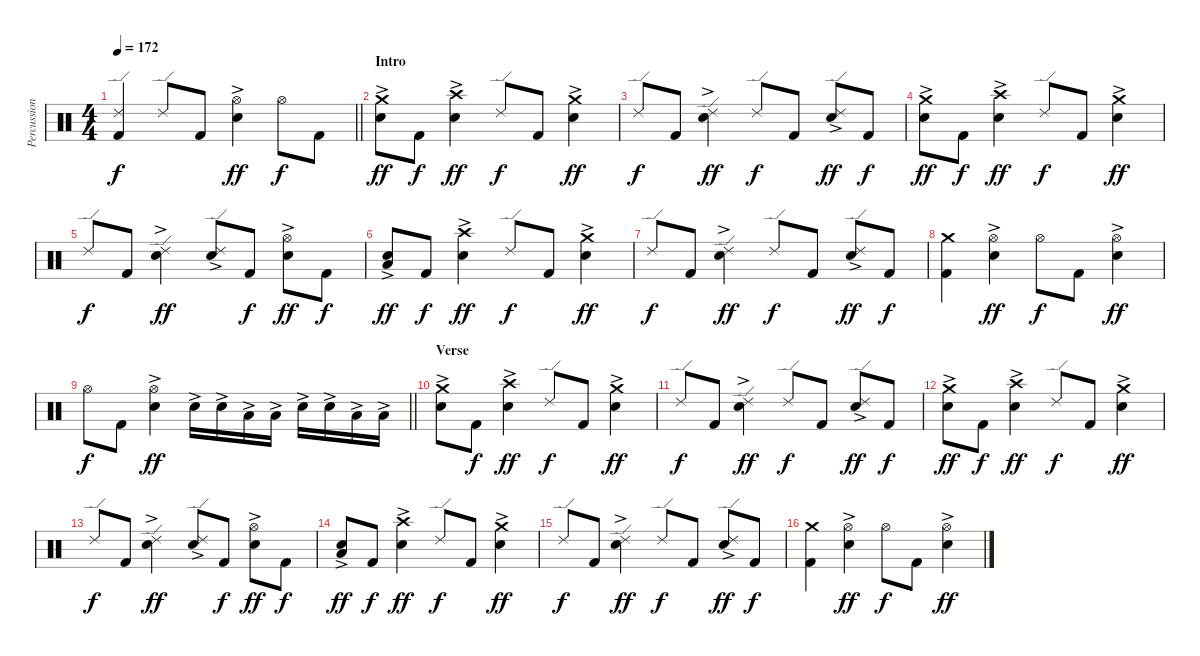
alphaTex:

\track ("Percussion" "Percussion") {instrument percussion}
\staff {score}
\articulation defaults
\ts (4 4)
\tempo 172
\clef neutral
\barLineRight lightlight
\ks c
("Ride (edge) 2" "Kick (hit) 2").4{dy f} "Ride (edge) 2".8 "Kick (hit) 2".8 ("Hi-Hat (open)" "Electric Snare (hit)"{ac}).4{dy ff} "Hi-Hat (open)".8{dy f} "Kick (hit) 2".8 |
\section ("" "Intro")
("Crash medium (hit)" "Electric Snare (hit)"{ac}).8{dy ff} "Kick (hit) 2".8{dy f} ("Crash high (hit)" "Electric Snare (hit)"{ac}).4{dy ff} "Ride (edge) 2".8{dy f} "Kick (hit) 2".8 ("Crash medium (hit)" "Electric Snare (hit)"{ac}).4{dy ff} |
"Ride (edge) 2".8{dy f} "Kick (hit) 2".8 ("Ride (edge) 2" "Electric Snare (hit)"{ac}).4{dy ff} "Ride (edge) 2".8{dy f} "Kick (hit) 2".8 ("Ride (edge) 2" "Electric Snare (hit)"{ac}).8{dy ff} "Kick (hit) 2".8{dy f} |
("Crash medium (hit)" "Electric Snare (hit)"{ac}).8{dy ff} "Kick (hit) 2".8{dy f} ("Crash high (hit)" "Electric Snare (hit)"{ac}).4{dy ff} "Ride (edge) 2".8{dy f} "Kick (hit) 2".8 ("Crash medium (hit)" "Electric Snare (hit)"{ac}).4{dy ff} |
"Ride (edge) 2".8{dy f} "Kick (hit) 2".8 ("Ride (edge) 2" "Electric Snare (hit)"{ac}).4{dy ff} ("Ride (edge) 2" "Electric Snare (hit)"{ac}).8 "Kick (hit) 2".8{dy f} ("Hi-Hat (open)" "Electric Snare (hit)"{ac}).8{dy ff} "Kick (hit) 2".8{dy f} |
("Low Tom (hit)"{ac} "Electric Snare (hit)"{ac}).8{bu 120 dy ff} "Kick (hit) 2".8{dy f} ("Crash high (hit)" "Electric Snare (hit)"{ac}).4{dy ff} "Ride (edge) 2".8{dy f} "Kick (hit) 2".8 ("Crash medium (hit)" "Electric Snare (hit)"{ac}).4{dy ff} |
"Ride (edge) 2".8{dy f} "Kick (hit) 2".8 ("Ride (edge) 2" "Electric Snare (hit)"{ac}).4{dy ff} "Ride (edge) 2".8{dy f} "Kick (hit) 2".8 ("Ride (edge) 2" "Electric Snare (hit)"{ac}).8{dy ff} "Kick (hit) 2".8{dy f} |
("Crash medium (hit)" "Kick (hit) 2").4 ("Hi-Hat (open)" "Electric Snare (hit)"{ac}).4{dy ff} "Hi-Hat (open)".8{dy f} "Kick (hit) 2".8 ("Hi-Hat (open)" "Electric Snare (hit)"{ac}).4{dy ff} |
\barLineRight lightlight "Hi-Hat (open)".8{dy f} "Kick (hit) 2".8
("Hi-Hat (open)" "Electric Snare (hit)"{ac}).4{dy ff} "Electric Snare (hit)"{ac}.16 "Electric Snare (hit)"{ac}.16 "Low Tom (hit)"{ac}.16 "Low Tom (hit)"{ac}.16 "Electric Snare (hit)"{ac}.16 "Electric Snare (hit)"{ac}.16 "Low Tom (hit)"{ac}.16 "Low Tom (hit)"{ac}.16 |
\section ("" "Verse")
("Crash medium (hit)" "Electric Snare (hit)"{ac}).8 "Kick (hit) 2".8{dy f} ("Crash high (hit)" "Electric Snare (hit)"{ac}).4{dy ff} "Ride (edge) 2".8{dy f} "Kick (hit) 2".8 ("Crash medium (hit)" "Electric Snare (hit)"{ac}).4{dy ff} |
"Ride (edge) 2".8{dy f} "Kick (hit) 2".8 ("Ride (edge) 2" "Electric Snare (hit)"{ac}).4{dy ff} "Ride (edge) 2".8{dy f} "Kick (hit) 2".8 ("Ride (edge) 2" "Electric Snare (hit)"{ac}).8{dy ff} "Kick (hit) 2".8{dy f} |
("Crash medium (hit)" "Electric Snare (hit)"{ac}).8{dy ff} "Kick (hit) 2".8{dy f} ("Crash high (hit)" "Electric Snare (hit)"{ac}).4{dy ff} "Ride (edge) 2".8{dy f} "Kick (hit) 2".8 ("Crash medium (hit)" "Electric Snare (hit)"{ac}).4{dy ff} |
"Ride (edge) 2".8{dy f} "Kick (hit) 2".8 ("Ride (edge) 2" "Electric Snare (hit)"{ac}).4{dy ff} ("Ride (edge) 2" "Electric Snare (hit)"{ac}).8 "Kick (hit) 2".8{dy f} ("Hi-Hat (open)" "Electric Snare (hit)"{ac}).8{dy ff} "Kick (hit) 2".8{dy f} |
("Low Tom (hit)"{ac} "Electric Snare (hit)"{ac}).8{dy ff} "Kick (hit) 2".8{dy f} ("Crash high (hit)" "Electric Snare (hit)"{ac}).4{dy ff} "Ride (edge) 2".8{dy f} "Kick (hit) 2".8 ("Crash medium (hit)" "Electric Snare (hit)"{ac}).4{dy ff} |
"Ride (edge) 2".8{dy f} "Kick (hit) 2".8 ("Ride (edge) 2" "Electric Snare (hit)"{ac}).4{dy ff} "Ride (edge) 2".8{dy f} "Kick (hit) 2".8 ("Ride (edge) 2" "Electric Snare (hit)"{ac}).8{dy ff} "Kick (hit) 2".8{dy f} |
("Crash medium (hit)" "Kick (hit) 2").4 ("Hi-Hat (open)" "Electric Snare (hit)"{ac}).4{dy ff} "Hi-Hat (open)".8{dy f} "Kick (hit) 2".8 ("Hi-Hat (open)" "Electric Snare (hit)"{ac}).4{dy ff}
